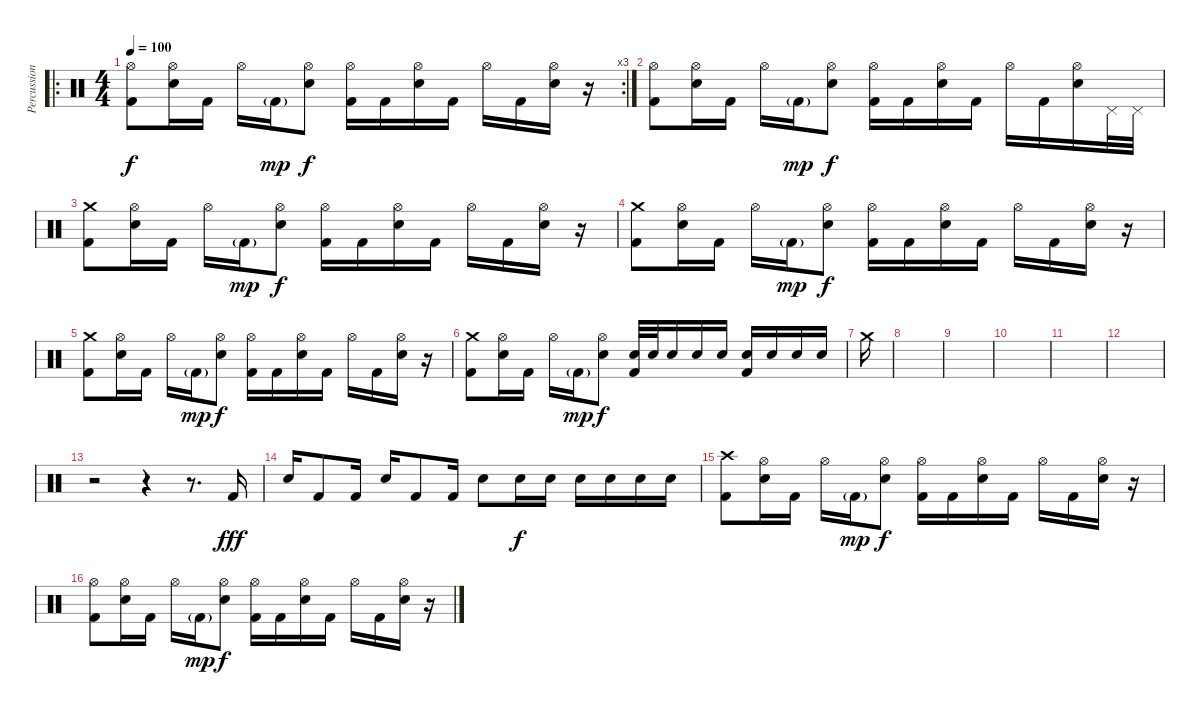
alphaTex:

\track ("Percussions" "Percussion") {instrument percussion}
\staff {score}
\articulation defaults
\ro
\rc 3
\ts (4 4)
\tempo 100
\clef neutral
\ks c
("Hi-Hat (open)" "Kick (hit) 2").8{dy f volume 11} ("Hi-Hat (open)" "Electric Snare (hit)").16 "Kick (hit) 2".16 "Hi-Hat (open)".16 "Kick (hit) 2"{g}.16{dy mp} ("Hi-Hat (open)" "Electric Snare (hit)").8{dy f} ("Hi-Hat (open)" "Kick (hit) 2").16 "Kick (hit) 2".16 ("Hi-Hat (open)" "Electric Snare (hit)").16 "Kick (hit) 2".16 "Hi-Hat (open)".16 "Kick (hit) 2".16 ("Hi-Hat (open)" "Electric Snare (hit)").16 r.16 |
("Hi-Hat (open)" "Kick (hit) 2").8 ("Hi-Hat (open)" "Electric Snare (hit)").16 "Kick (hit) 2".16 "Hi-Hat (open)".16 "Kick (hit) 2"{g}.16{dy mp} ("Hi-Hat (open)" "Electric Snare (hit)").8{dy f} ("Hi-Hat (open)" "Kick (hit) 2").16 "Kick (hit) 2".16 ("Hi-Hat (open)" "Electric Snare (hit)").16 "Kick (hit) 2".16 "Hi-Hat (open)".16 "Kick (hit) 2".16 ("Hi-Hat (open)" "Electric Snare (hit)").16 "Pedal Hi-Hat (hit)".32 "Pedal Hi-Hat (hit)".32 |
("Crash medium (hit)" "Kick (hit) 2").8 ("Hi-Hat (open)" "Electric Snare (hit)").16 "Kick (hit) 2".16 "Hi-Hat (open)".16 "Kick (hit) 2"{g}.16{dy mp} ("Hi-Hat (open)" "Electric Snare (hit)").8{dy f} ("Hi-Hat (open)" "Kick (hit) 2").16 "Kick (hit) 2".16 ("Hi-Hat (open)" "Electric Snare (hit)").16 "Kick (hit) 2".16 "Hi-Hat (open)".16 "Kick (hit) 2".16 ("Hi-Hat (open)" "Electric Snare (hit)").16 r.16 |
("Crash medium (hit)" "Kick (hit) 2").8 ("Hi-Hat (open)" "Electric Snare (hit)").16 "Kick (hit) 2".16 "Hi-Hat (open)".16 "Kick (hit) 2"{g}.16{dy mp} ("Hi-Hat (open)" "Electric Snare (hit)").8{dy f} ("Hi-Hat (open)" "Kick (hit) 2").16 "Kick (hit) 2".16 ("Hi-Hat (open)" "Electric Snare (hit)").16 "Kick (hit) 2".16 "Hi-Hat (open)".16 "Kick (hit) 2".16 ("Hi-Hat (open)" "Electric Snare (hit)").16 r.16 |
("Crash medium (hit)" "Kick (hit) 2").8 ("Hi-Hat (open)" "Electric Snare (hit)").16 "Kick (hit) 2".16 "Hi-Hat (open)".16 "Kick (hit) 2"{g}.16{dy mp} ("Hi-Hat (open)" "Electric Snare (hit)").8{dy f} ("Hi-Hat (open)" "Kick (hit) 2").16 "Kick (hit) 2".16 ("Hi-Hat (open)" "Electric Snare (hit)").16 "Kick (hit) 2".16 "Hi-Hat (open)".16 "Kick (hit) 2".16 ("Hi-Hat (open)" "Electric Snare (hit)").16 r.16 |
("Crash medium (hit)" "Kick (hit) 2").8{volume 16} ("Hi-Hat (open)" "Electric Snare (hit)").16 "Kick (hit) 2".16 "Hi-Hat (open)".16 "Kick (hit) 2"{g}.16{dy mp} ("Hi-Hat (open)" "Electric Snare (hit)").8{dy f} ("Electric Snare (hit)" "Kick (hit) 2").32 "Electric Snare (hit)".32 "Electric Snare (hit)".16 "Electric Snare (hit)".16 "Electric Snare (hit)".16 ("Electric Snare (hit)" "Kick (hit) 2").16 "Electric Snare (hit)".16 "Electric Snare (hit)".16 "Electric Snare (hit)".16 |
"Crash medium (hit)".16 |
|
|
|
|
|
r.2 r.4 r.8{d} "Kick (hit) 2".16{dy fff} |
"Electric Snare (hit)".16 "Kick (hit) 2".8 "Kick (hit) 2".16 "Electric Snare (hit)".16 "Kick (hit) 2".8 "Kick (hit) 2".16 "Electric Snare (hit)".8 "Electric Snare (hit)".16{dy f} "Electric Snare (hit)".16 "Electric Snare (hit)".16 "Electric Snare (hit)".16 "Electric Snare (hit)".16 "Electric Snare (hit)".16 |
("Crash high (hit)" "Kick (hit) 2").8 ("Hi-Hat (open)" "Electric Snare (hit)").16 "Kick (hit) 2".16 "Hi-Hat (open)".16 "Kick (hit) 2"{g}.16{dy mp} ("Hi-Hat (open)" "Electric Snare (hit)").8{dy f} ("Hi-Hat (open)" "Kick (hit) 2").16 "Kick (hit) 2".16 ("Hi-Hat (open)" "Electric Snare (hit)").16 "Kick (hit) 2".16 "Hi-Hat (open)".16 "Kick (hit) 2".16 ("Hi-Hat (open)" "Electric Snare (hit)").16 r.16 |
("Hi-Hat (open)" "Kick (hit) 2").8 ("Hi-Hat (open)" "Electric Snare (hit)").16 "Kick (hit) 2".16 "Hi-Hat (open)".16 "Kick (hit) 2"{g}.16{dy mp} ("Hi-Hat (open)" "Electric Snare (hit)").8{dy f} ("Hi-Hat (open)" "Kick (hit) 2").16 "Kick (hit) 2".16 ("Hi-Hat (open)" "Electric Snare (hit)").16 "Kick (hit) 2".16 "Hi-Hat (open)".16 "Kick (hit) 2".16 ("Hi-Hat (open)" "Electric Snare (hit)").16 r.16
